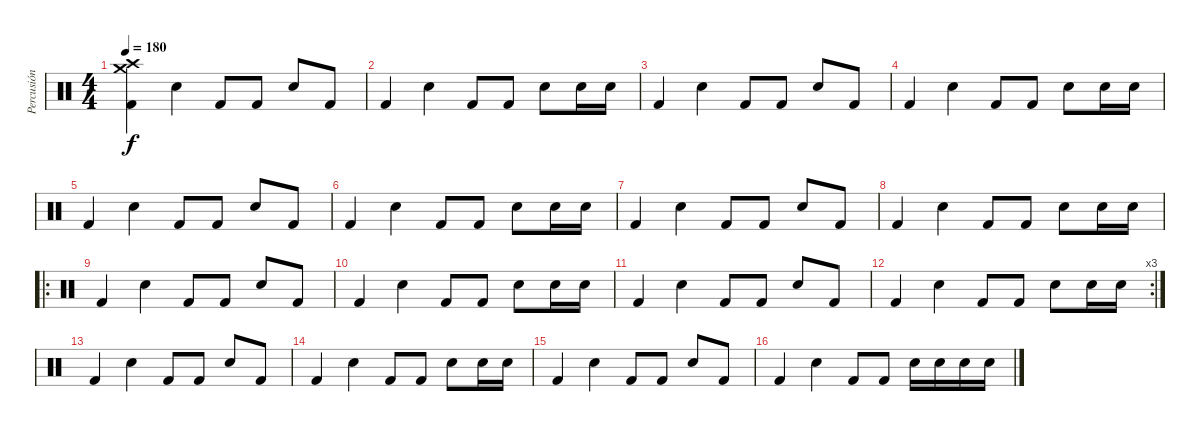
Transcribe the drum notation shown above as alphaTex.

\track ("Percusión" "Percusión") {instrument percussion}
\staff {score}
\articulation defaults
\ts (4 4)
\tempo 180
\clef neutral
\ks c
("Crash medium (hit)" "Crash high (hit)" "Kick (hit) 2").4{dy f} "Electric Snare (hit)".4 "Kick (hit) 2".8 "Kick (hit) 2".8 "Electric Snare (hit)".8 "Kick (hit) 2".8 |
"Kick (hit) 2".4 "Electric Snare (hit)".4 "Kick (hit) 2".8 "Kick (hit) 2".8 "Electric Snare (hit)".8 "Snare (hit) 2".16 "Snare (hit) 2".16 |
"Kick (hit) 2".4 "Electric Snare (hit)".4 "Kick (hit) 2".8 "Kick (hit) 2".8 "Electric Snare (hit)".8 "Kick (hit) 2".8 |
"Kick (hit) 2".4 "Electric Snare (hit)".4 "Kick (hit) 2".8 "Kick (hit) 2".8 "Electric Snare (hit)".8 "Snare (hit) 2".16 "Snare (hit) 2".16 |
"Kick (hit) 2".4 "Electric Snare (hit)".4 "Kick (hit) 2".8 "Kick (hit) 2".8 "Electric Snare (hit)".8 "Kick (hit) 2".8 |
"Kick (hit) 2".4 "Electric Snare (hit)".4 "Kick (hit) 2".8 "Kick (hit) 2".8 "Electric Snare (hit)".8 "Snare (hit) 2".16 "Snare (hit) 2".16 |
"Kick (hit) 2".4 "Electric Snare (hit)".4 "Kick (hit) 2".8 "Kick (hit) 2".8 "Electric Snare (hit)".8 "Kick (hit) 2".8 |
"Kick (hit) 2".4 "Electric Snare (hit)".4 "Kick (hit) 2".8 "Kick (hit) 2".8 "Electric Snare (hit)".8 "Snare (hit) 2".16 "Snare (hit) 2".16 |
\ro "Kick (hit) 2".4 "Electric Snare (hit)".4 "Kick (hit) 2".8 "Kick (hit) 2".8 "Electric Snare (hit)".8 "Kick (hit) 2".8
|
"Kick (hit) 2".4 "Electric Snare (hit)".4 "Kick (hit) 2".8 "Kick (hit) 2".8 "Electric Snare (hit)".8 "Snare (hit) 2".16 "Snare (hit) 2".16 |
"Kick (hit) 2".4 "Electric Snare (hit)".4 "Kick (hit) 2".8 "Kick (hit) 2".8 "Electric Snare (hit)".8 "Kick (hit) 2".8 |
\rc 3 "Kick (hit) 2".4 "Electric Snare (hit)".4 "Kick (hit) 2".8 "Kick (hit) 2".8 "Electric Snare (hit)".8 "Snare (hit) 2".16 "Snare (hit) 2".16
|
"Kick (hit) 2".4 "Electric Snare (hit)".4 "Kick (hit) 2".8 "Kick (hit) 2".8 "Electric Snare (hit)".8 "Kick (hit) 2".8 |
"Kick (hit) 2".4 "Electric Snare (hit)".4 "Kick (hit) 2".8 "Kick (hit) 2".8 "Electric Snare (hit)".8 "Snare (hit) 2".16 "Snare (hit) 2".16 |
"Kick (hit) 2".4 "Electric Snare (hit)".4 "Kick (hit) 2".8 "Kick (hit) 2".8 "Electric Snare (hit)".8 "Kick (hit) 2".8 |
"Kick (hit) 2".4 "Electric Snare (hit)".4 "Kick (hit) 2".8 "Kick (hit) 2".8 "Snare (hit) 2".16 "Snare (hit) 2".16 "Snare (hit) 2".16 "Snare (hit) 2".16
